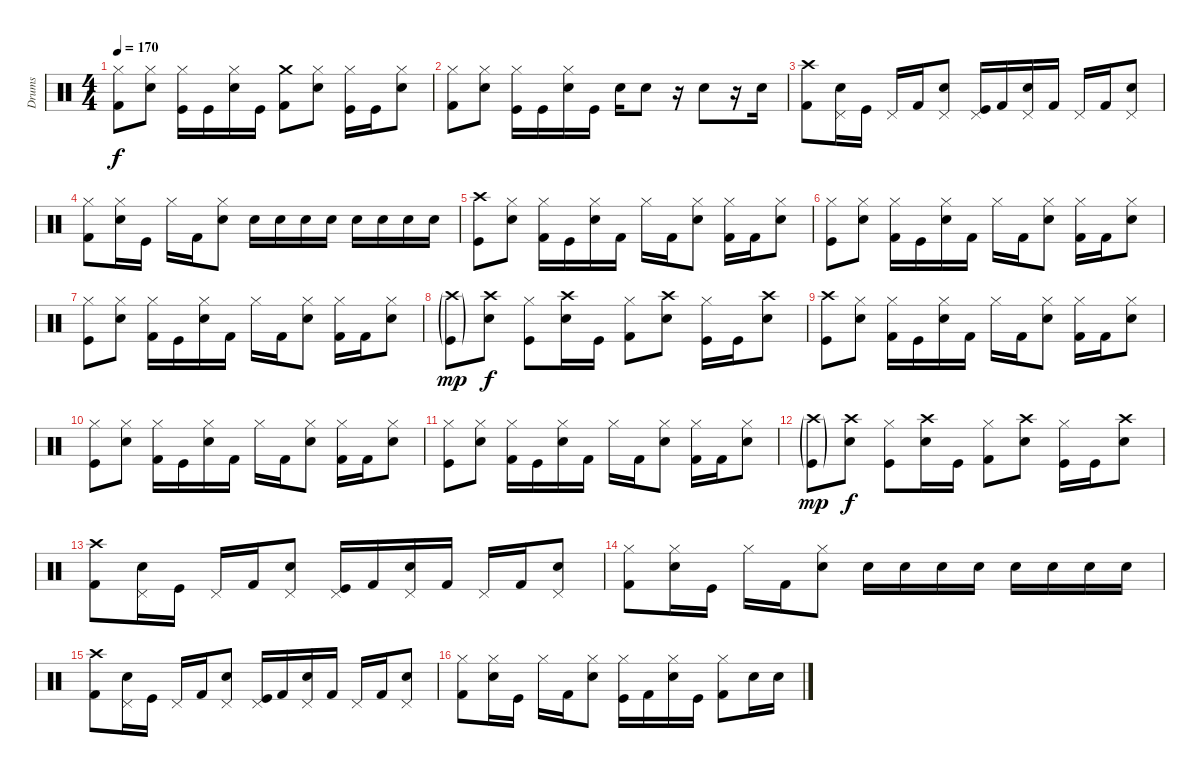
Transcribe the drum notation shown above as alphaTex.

\track ("Drums" "Drums") {instrument percussion}
\staff {score}
\articulation defaults
\ts (4 4)
\tempo 170
\clef neutral
\ks c
("Hi-Hat (closed)" "Kick (hit) 2").8{dy f} ("Hi-Hat (closed)" "Electric Snare (hit)").8 ("Hi-Hat (closed)" "Kick (hit)").16 "Kick (hit)".16 ("Hi-Hat (closed)" "Electric Snare (hit)").16 "Kick (hit)".16 ("Crash medium (hit)" "Kick (hit) 2").8 ("Hi-Hat (closed)" "Electric Snare (hit)").8 ("Hi-Hat (closed)" "Kick (hit)").16 "Kick (hit)".16 ("Hi-Hat (closed)" "Electric Snare (hit)").8 |
("Hi-Hat (closed)" "Kick (hit) 2").8 ("Hi-Hat (closed)" "Electric Snare (hit)").8 ("Hi-Hat (closed)" "Kick (hit)").16 "Kick (hit)".16 ("Hi-Hat (closed)" "Electric Snare (hit)").16 "Kick (hit)".16 "Electric Snare (hit)".16 "Electric Snare (hit)".8 r.16 "Electric Snare (hit)".8 r.16 "Electric Snare (hit)".16 |
("Crash high (hit)" "Kick (hit) 2").8 ("Pedal Hi-Hat (hit)" "Electric Snare (hit)").16 "Kick (hit)".16 "Pedal Hi-Hat (hit)".16 "Kick (hit) 2".16 ("Pedal Hi-Hat (hit)" "Electric Snare (hit)").8 ("Pedal Hi-Hat (hit)" "Kick (hit)").16 "Kick (hit) 2".16 ("Pedal Hi-Hat (hit)" "Electric Snare (hit)").16 "Kick (hit) 2".16 "Pedal Hi-Hat (hit)".16 "Kick (hit) 2".16 ("Pedal Hi-Hat (hit)" "Electric Snare (hit)").8 |
("Hi-Hat (closed)" "Kick (hit) 2").8 ("Hi-Hat (closed)" "Electric Snare (hit)").16 "Kick (hit)".16 "Hi-Hat (closed)".16 "Kick (hit) 2".16 ("Hi-Hat (closed)" "Electric Snare (hit)").8 "Electric Snare (hit)".16 "Electric Snare (hit)".16 "Electric Snare (hit)".16 "Electric Snare (hit)".16 "Electric Snare (hit)".16 "Electric Snare (hit)".16 "Electric Snare (hit)".16 "Electric Snare (hit)".16 |
("Crash high (hit)" "Kick (hit)").8 ("Hi-Hat (closed)" "Electric Snare (hit)").8 ("Hi-Hat (closed)" "Kick (hit) 2").16 "Kick (hit)".16 ("Hi-Hat (closed)" "Electric Snare (hit)").16 "Kick (hit) 2".16 "Hi-Hat (closed)".16 "Kick (hit) 2".16 ("Hi-Hat (closed)" "Electric Snare (hit)").8 ("Hi-Hat (closed)" "Kick (hit) 2").16 "Kick (hit) 2".16 ("Hi-Hat (closed)" "Electric Snare (hit)").8 |
("Hi-Hat (closed)" "Kick (hit)").8 ("Hi-Hat (closed)" "Electric Snare (hit)").8 ("Hi-Hat (closed)" "Kick (hit) 2").16 "Kick (hit)".16 ("Hi-Hat (closed)" "Electric Snare (hit)").16 "Kick (hit) 2".16 "Hi-Hat (closed)".16 "Kick (hit) 2".16 ("Hi-Hat (closed)" "Electric Snare (hit)").8 ("Hi-Hat (closed)" "Kick (hit) 2").16 "Kick (hit) 2".16 ("Hi-Hat (closed)" "Electric Snare (hit)").8 |
("Hi-Hat (closed)" "Kick (hit)").8 ("Hi-Hat (closed)" "Electric Snare (hit)").8 ("Hi-Hat (closed)" "Kick (hit) 2").16 "Kick (hit)".16 ("Hi-Hat (closed)" "Electric Snare (hit)").16 "Kick (hit) 2".16 "Hi-Hat (closed)".16 "Kick (hit) 2".16 ("Hi-Hat (closed)" "Electric Snare (hit)").8 ("Hi-Hat (closed)" "Kick (hit) 2").16 "Kick (hit) 2".16 ("Hi-Hat (closed)" "Electric Snare (hit)").8 |
("Crash high (hit)"{g} "Kick (hit)"{g}).8{dy mp} ("Crash high (hit)" "Electric Snare (hit)").8{dy f} ("Hi-Hat (closed)" "Kick (hit)").8 ("Crash high (hit)" "Electric Snare (hit)").16 "Kick (hit)".16 ("Hi-Hat (closed)" "Kick (hit) 2").8 ("Crash high (hit)" "Electric Snare (hit)").8 ("Hi-Hat (closed)" "Kick (hit)").16 "Kick (hit)".16 ("Crash high (hit)" "Electric Snare (hit)").8 |
("Crash high (hit)" "Kick (hit)").8 ("Hi-Hat (closed)" "Electric Snare (hit)").8 ("Hi-Hat (closed)" "Kick (hit) 2").16 "Kick (hit)".16 ("Hi-Hat (closed)" "Electric Snare (hit)").16 "Kick (hit) 2".16 "Hi-Hat (closed)".16 "Kick (hit) 2".16 ("Hi-Hat (closed)" "Electric Snare (hit)").8 ("Hi-Hat (closed)" "Kick (hit) 2").16 "Kick (hit) 2".16 ("Hi-Hat (closed)" "Electric Snare (hit)").8 |
("Hi-Hat (closed)" "Kick (hit)").8 ("Hi-Hat (closed)" "Electric Snare (hit)").8 ("Hi-Hat (closed)" "Kick (hit) 2").16 "Kick (hit)".16 ("Hi-Hat (closed)" "Electric Snare (hit)").16 "Kick (hit) 2".16 "Hi-Hat (closed)".16 "Kick (hit) 2".16 ("Hi-Hat (closed)" "Electric Snare (hit)").8 ("Hi-Hat (closed)" "Kick (hit) 2").16 "Kick (hit) 2".16 ("Hi-Hat (closed)" "Electric Snare (hit)").8 |
("Hi-Hat (closed)" "Kick (hit)").8 ("Hi-Hat (closed)" "Electric Snare (hit)").8 ("Hi-Hat (closed)" "Kick (hit) 2").16 "Kick (hit)".16 ("Hi-Hat (closed)" "Electric Snare (hit)").16 "Kick (hit) 2".16 "Hi-Hat (closed)".16 "Kick (hit) 2".16 ("Hi-Hat (closed)" "Electric Snare (hit)").8 ("Hi-Hat (closed)" "Kick (hit) 2").16 "Kick (hit) 2".16 ("Hi-Hat (closed)" "Electric Snare (hit)").8 |
("Crash high (hit)"{g} "Kick (hit)"{g}).8{dy mp} ("Crash high (hit)" "Electric Snare (hit)").8{dy f} ("Hi-Hat (closed)" "Kick (hit)").8 ("Crash high (hit)" "Electric Snare (hit)").16 "Kick (hit)".16 ("Hi-Hat (closed)" "Kick (hit) 2").8 ("Crash high (hit)" "Electric Snare (hit)").8 ("Hi-Hat (closed)" "Kick (hit)").16 "Kick (hit)".16 ("Crash high (hit)" "Electric Snare (hit)").8 |
("Crash high (hit)" "Kick (hit) 2").8 ("Pedal Hi-Hat (hit)" "Electric Snare (hit)").16 "Kick (hit)".16 "Pedal Hi-Hat (hit)".16 "Kick (hit) 2".16 ("Pedal Hi-Hat (hit)" "Electric Snare (hit)").8 ("Pedal Hi-Hat (hit)" "Kick (hit)").16 "Kick (hit) 2".16 ("Pedal Hi-Hat (hit)" "Electric Snare (hit)").16 "Kick (hit) 2".16 "Pedal Hi-Hat (hit)".16 "Kick (hit) 2".16 ("Pedal Hi-Hat (hit)" "Electric Snare (hit)").8 |
("Hi-Hat (closed)" "Kick (hit) 2").8 ("Hi-Hat (closed)" "Electric Snare (hit)").16 "Kick (hit)".16 "Hi-Hat (closed)".16 "Kick (hit) 2".16 ("Hi-Hat (closed)" "Electric Snare (hit)").8 "Electric Snare (hit)".16 "Electric Snare (hit)".16 "Electric Snare (hit)".16 "Electric Snare (hit)".16 "Electric Snare (hit)".16 "Electric Snare (hit)".16 "Electric Snare (hit)".16 "Electric Snare (hit)".16 |
("Crash high (hit)" "Kick (hit) 2").8 ("Pedal Hi-Hat (hit)" "Electric Snare (hit)").16 "Kick (hit)".16 "Pedal Hi-Hat (hit)".16 "Kick (hit) 2".16 ("Pedal Hi-Hat (hit)" "Electric Snare (hit)").8 ("Pedal Hi-Hat (hit)" "Kick (hit)").16 "Kick (hit) 2".16 ("Pedal Hi-Hat (hit)" "Electric Snare (hit)").16 "Kick (hit) 2".16 "Pedal Hi-Hat (hit)".16 "Kick (hit) 2".16 ("Pedal Hi-Hat (hit)" "Electric Snare (hit)").8 |
("Hi-Hat (closed)" "Kick (hit) 2").8 ("Hi-Hat (closed)" "Electric Snare (hit)").16 "Kick (hit)".16 "Hi-Hat (closed)".16 "Kick (hit) 2".16 ("Hi-Hat (closed)" "Electric Snare (hit)").8 ("Hi-Hat (closed)" "Kick (hit)").16 "Kick (hit) 2".16 ("Hi-Hat (closed)" "Electric Snare (hit)").16 "Kick (hit)".16 ("Hi-Hat (closed)" "Kick (hit) 2").8 "Electric Snare (hit)".16 "Electric Snare (hit)".16
